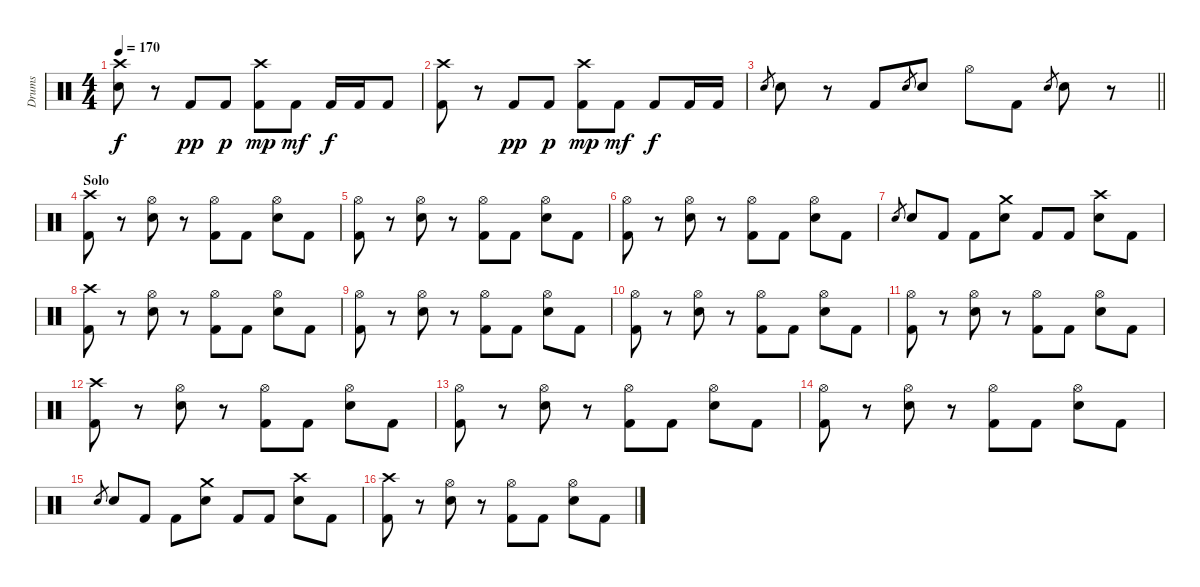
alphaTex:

\track ("Drums" "Drums") {instrument percussion}
\staff {score}
\articulation defaults
\ts (4 4)
\tempo 170
\clef neutral
\ks c
("Crash high (hit)" "Electric Snare (hit)").8{dy f} r.8 "Kick (hit) 2".8{dy pp} "Kick (hit) 2".8{dy p} ("Crash high (hit)" "Kick (hit) 2").8{dy mp} "Kick (hit) 2".8{dy mf} "Kick (hit) 2".16{dy f} "Kick (hit) 2".16 "Kick (hit) 2".8 |
("Crash high (hit)" "Kick (hit) 2").8 r.8 "Kick (hit) 2".8{dy pp} "Kick (hit) 2".8{dy p} ("Crash high (hit)" "Kick (hit) 2").8{dy mp} "Kick (hit) 2".8{dy mf} "Kick (hit) 2".8{dy f} "Kick (hit) 2".16 "Kick (hit) 2".16 |
\barLineRight lightlight "Electric Snare (hit)".8{gr} "Electric Snare (hit)".8
r.8 "Kick (hit) 2".8 "Electric Snare (hit)".8{gr} "Electric Snare (hit)".8 "Hi-Hat (open)".8 "Kick (hit) 2".8 "Electric Snare (hit)".8{gr} "Electric Snare (hit)".8 r.8 |
\section ("" "Solo")
("Crash high (hit)" "Kick (hit) 2").8 r.8 ("Hi-Hat (open)" "Electric Snare (hit)").8 r.8 ("Hi-Hat (open)" "Kick (hit) 2").8 "Kick (hit) 2".8 ("Hi-Hat (open)" "Electric Snare (hit)").8 "Kick (hit) 2".8 |
("Hi-Hat (open)" "Kick (hit) 2").8 r.8 ("Hi-Hat (open)" "Electric Snare (hit)").8 r.8 ("Hi-Hat (open)" "Kick (hit) 2").8 "Kick (hit) 2".8 ("Hi-Hat (open)" "Electric Snare (hit)").8 "Kick (hit) 2".8 |
("Hi-Hat (open)" "Kick (hit) 2").8 r.8 ("Hi-Hat (open)" "Electric Snare (hit)").8 r.8 ("Hi-Hat (open)" "Kick (hit) 2").8 "Kick (hit) 2".8 ("Hi-Hat (open)" "Electric Snare (hit)").8 "Kick (hit) 2".8 |
"Electric Snare (hit)".8{gr} "Electric Snare (hit)".8 "Kick (hit) 2".8 "Kick (hit) 2".8 ("Crash medium (hit)" "Electric Snare (hit)").8 "Kick (hit) 2".8 "Kick (hit) 2".8 ("Crash high (hit)" "Electric Snare (hit)").8 "Kick (hit) 2".8 |
("Crash high (hit)" "Kick (hit) 2").8 r.8 ("Hi-Hat (open)" "Electric Snare (hit)").8 r.8 ("Hi-Hat (open)" "Kick (hit) 2").8 "Kick (hit) 2".8 ("Hi-Hat (open)" "Electric Snare (hit)").8 "Kick (hit) 2".8 |
("Hi-Hat (open)" "Kick (hit) 2").8 r.8 ("Hi-Hat (open)" "Electric Snare (hit)").8 r.8 ("Hi-Hat (open)" "Kick (hit) 2").8 "Kick (hit) 2".8 ("Hi-Hat (open)" "Electric Snare (hit)").8 "Kick (hit) 2".8 |
("Hi-Hat (open)" "Kick (hit) 2").8 r.8 ("Hi-Hat (open)" "Electric Snare (hit)").8 r.8 ("Hi-Hat (open)" "Kick (hit) 2").8 "Kick (hit) 2".8 ("Hi-Hat (open)" "Electric Snare (hit)").8 "Kick (hit) 2".8 |
("Hi-Hat (open)" "Kick (hit) 2").8 r.8 ("Hi-Hat (open)" "Electric Snare (hit)").8 r.8 ("Hi-Hat (open)" "Kick (hit) 2").8 "Kick (hit) 2".8 ("Hi-Hat (open)" "Electric Snare (hit)").8 "Kick (hit) 2".8 |
("Crash high (hit)" "Kick (hit) 2").8 r.8 ("Hi-Hat (open)" "Electric Snare (hit)").8 r.8 ("Hi-Hat (open)" "Kick (hit) 2").8 "Kick (hit) 2".8 ("Hi-Hat (open)" "Electric Snare (hit)").8 "Kick (hit) 2".8 |
("Hi-Hat (open)" "Kick (hit) 2").8 r.8 ("Hi-Hat (open)" "Electric Snare (hit)").8 r.8 ("Hi-Hat (open)" "Kick (hit) 2").8 "Kick (hit) 2".8 ("Hi-Hat (open)" "Electric Snare (hit)").8 "Kick (hit) 2".8 |
("Hi-Hat (open)" "Kick (hit) 2").8 r.8 ("Hi-Hat (open)" "Electric Snare (hit)").8 r.8 ("Hi-Hat (open)" "Kick (hit) 2").8 "Kick (hit) 2".8 ("Hi-Hat (open)" "Electric Snare (hit)").8 "Kick (hit) 2".8 |
"Electric Snare (hit)".8{gr} "Electric Snare (hit)".8 "Kick (hit) 2".8 "Kick (hit) 2".8 ("Crash medium (hit)" "Electric Snare (hit)").8 "Kick (hit) 2".8 "Kick (hit) 2".8 ("Crash high (hit)" "Electric Snare (hit)").8 "Kick (hit) 2".8 |
("Crash high (hit)" "Kick (hit) 2").8 r.8 ("Hi-Hat (open)" "Electric Snare (hit)").8 r.8 ("Hi-Hat (open)" "Kick (hit) 2").8 "Kick (hit) 2".8 ("Hi-Hat (open)" "Electric Snare (hit)").8 "Kick (hit) 2".8
